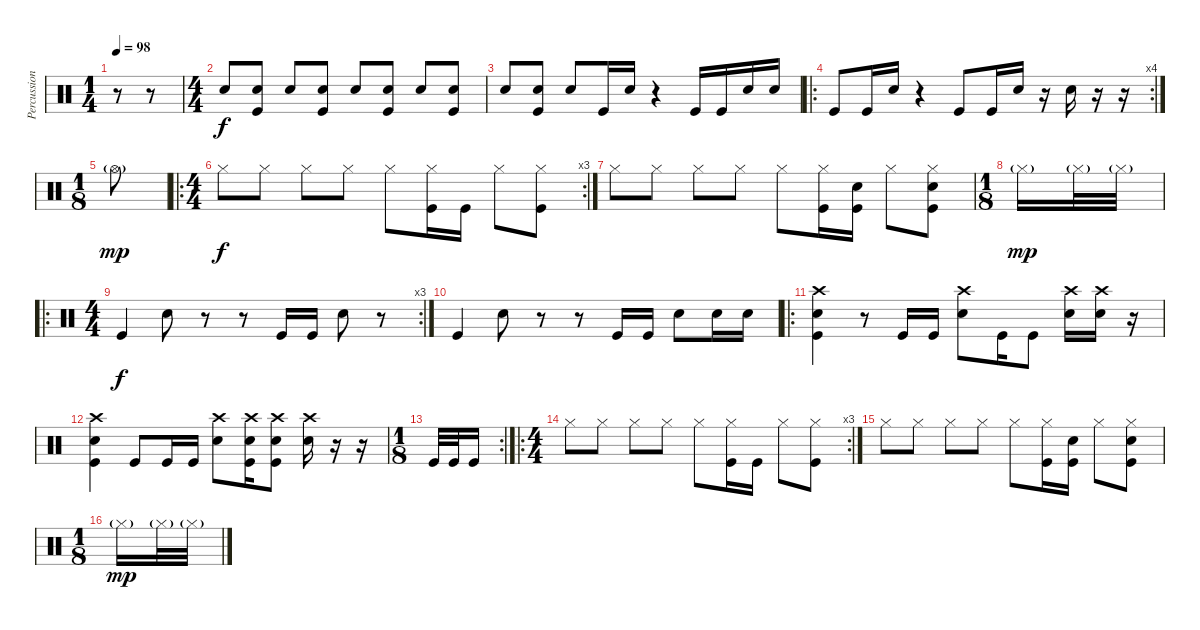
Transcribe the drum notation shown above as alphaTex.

\track ("Percussion" "Percussion") {instrument percussion}
\staff {score}
\articulation defaults
\ts (1 4)
\tempo 98
\clef neutral
\ks c
r.8{dy f} r.8 |
\ts (4 4)
"Electric Snare (hit)".8 ("Electric Snare (hit)" "Kick (hit)").8 "Electric Snare (hit)".8 ("Electric Snare (hit)" "Kick (hit)").8 "Electric Snare (hit)".8 ("Electric Snare (hit)" "Kick (hit)").8 "Electric Snare (hit)".8 ("Electric Snare (hit)" "Kick (hit)").8 |
"Electric Snare (hit)".8 ("Electric Snare (hit)" "Kick (hit)").8 "Electric Snare (hit)".8 "Kick (hit)".16 "Electric Snare (hit)".16 r.4 "Kick (hit)".16 "Kick (hit)".16 "Electric Snare (hit)".16 "Electric Snare (hit)".16 |
\ro
\rc 4 "Kick (hit)".8 "Kick (hit)".16 "Electric Snare (hit)".16
r.4 "Kick (hit)".8 "Kick (hit)".16 "Electric Snare (hit)".16 r.16 "Electric Snare (hit)".16 r.16 r.16 |
\ts (1 8)
"Hi-Hat (open)"{g}.8{dy mp} |
\ro
\rc 3
\ts (4 4)
"Hi-Hat (closed)".8{dy f} "Hi-Hat (closed)".8 "Hi-Hat (closed)".8 "Hi-Hat (closed)".8 "Hi-Hat (closed)".8 ("Hi-Hat (closed)" "Kick (hit)").16 "Kick (hit)".16 "Hi-Hat (closed)".8 ("Hi-Hat (closed)" "Kick (hit)").8 |
"Hi-Hat (closed)".8 "Hi-Hat (closed)".8 "Hi-Hat (closed)".8 "Hi-Hat (closed)".8 "Hi-Hat (closed)".8 ("Hi-Hat (closed)" "Kick (hit)").16 ("Electric Snare (hit)" "Kick (hit)").16 "Hi-Hat (closed)".8 ("Hi-Hat (closed)" "Electric Snare (hit)" "Kick (hit)").8 |
\ts (1 8)
"Hi-Hat (closed)"{g}.16{dy mp} "Hi-Hat (closed)"{g}.32 "Hi-Hat (closed)"{g}.32 |
\ro
\rc 3
\ts (4 4)
"Kick (hit)".4{dy f} "Electric Snare (hit)".8 r.8 r.8 "Kick (hit)".16 "Kick (hit)".16 "Electric Snare (hit)".8 r.8 |
"Kick (hit)".4 "Electric Snare (hit)".8 r.8 r.8 "Kick (hit)".16 "Kick (hit)".16 "Electric Snare (hit)".8 "Electric Snare (hit)".16 "Electric Snare (hit)".16 |
\ro
("Crash high (hit)" "Electric Snare (hit)" "Kick (hit)").4 r.8 "Kick (hit)".16 "Kick (hit)".16 ("Crash high (hit)" "Electric Snare (hit)").8 "Kick (hit)".16 "Kick (hit)".8 ("Crash high (hit)" "Electric Snare (hit)").16 ("Crash high (hit)" "Electric Snare (hit)").16 r.16 |
("Crash high (hit)" "Electric Snare (hit)" "Kick (hit)").4 "Kick (hit)".8 "Kick (hit)".16 "Kick (hit)".16 ("Crash high (hit)" "Electric Snare (hit)").8 ("Crash high (hit)" "Electric Snare (hit)" "Kick (hit)").16 ("Crash high (hit)" "Electric Snare (hit)" "Kick (hit)").8 ("Crash high (hit)" "Electric Snare (hit)").16 r.16 r.16 |
\rc 2
\ts (1 8)
"Kick (hit)".32 "Kick (hit)".32 "Kick (hit)".16 |
\ro
\rc 3
\ts (4 4)
"Hi-Hat (closed)".8 "Hi-Hat (closed)".8 "Hi-Hat (closed)".8 "Hi-Hat (closed)".8 "Hi-Hat (closed)".8 ("Hi-Hat (closed)" "Kick (hit)").16 "Kick (hit)".16 "Hi-Hat (closed)".8 ("Hi-Hat (closed)" "Kick (hit)").8 |
"Hi-Hat (closed)".8 "Hi-Hat (closed)".8 "Hi-Hat (closed)".8 "Hi-Hat (closed)".8 "Hi-Hat (closed)".8 ("Hi-Hat (closed)" "Kick (hit)").16 ("Electric Snare (hit)" "Kick (hit)").16 "Hi-Hat (closed)".8 ("Hi-Hat (closed)" "Electric Snare (hit)" "Kick (hit)").8 |
\ts (1 8)
"Hi-Hat (closed)"{g}.16{dy mp} "Hi-Hat (closed)"{g}.32 "Hi-Hat (closed)"{g}.32
